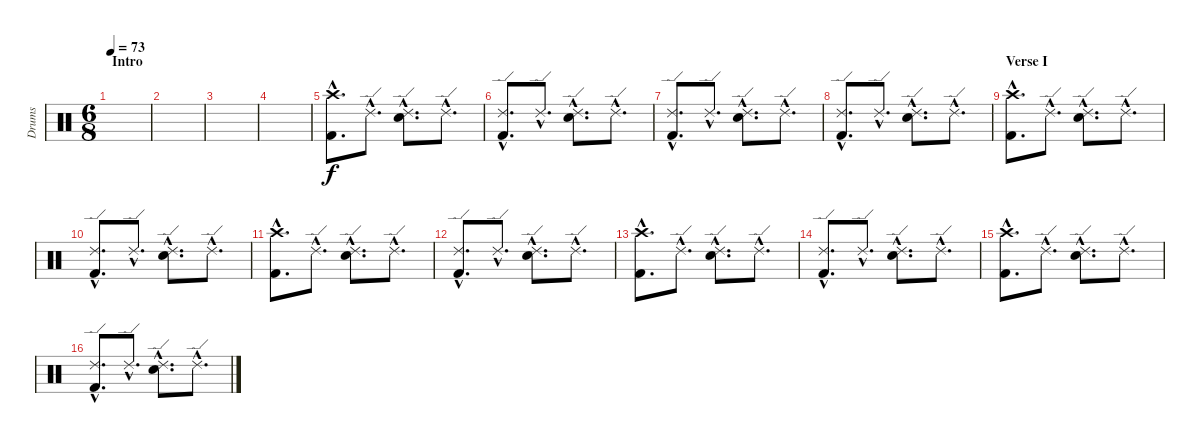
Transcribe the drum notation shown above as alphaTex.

\track ("Drums" "Drums") {instrument percussion}
\staff {score}
\articulation defaults
\ts (6 8)
\section ("" "Intro")
\tempo 73
\clef neutral
\ks c
|
|
|
|
("Crash high (hit)"{hac} "Kick (hit) 2"{hac}).8{d} "Ride (edge) 2"{hac}.8{d} ("Ride (edge) 2"{hac} "Electric Snare (hit)"{hac}).8{d} "Ride (edge) 2"{hac}.8{d} |
("Ride (edge) 2"{hac} "Kick (hit) 2"{hac}).8{d} "Ride (edge) 2"{hac}.8{d} ("Ride (edge) 2"{hac} "Electric Snare (hit)"{hac}).8{d} "Ride (edge) 2"{hac}.8{d} |
("Ride (edge) 2"{hac} "Kick (hit) 2"{hac}).8{d} "Ride (edge) 2"{hac}.8{d} ("Ride (edge) 2"{hac} "Electric Snare (hit)"{hac}).8{d} "Ride (edge) 2"{hac}.8{d} |
("Ride (edge) 2"{hac} "Kick (hit) 2"{hac}).8{d} "Ride (edge) 2"{hac}.8{d} ("Ride (edge) 2"{hac} "Electric Snare (hit)"{hac}).8{d} "Ride (edge) 2"{hac}.8{d} |
\section ("" "Verse I")
("Crash high (hit)"{hac} "Kick (hit) 2"{hac}).8{d} "Ride (edge) 2"{hac}.8{d} ("Ride (edge) 2"{hac} "Electric Snare (hit)"{hac}).8{d} "Ride (edge) 2"{hac}.8{d} |
("Ride (edge) 2"{hac} "Kick (hit) 2"{hac}).8{d} "Ride (edge) 2"{hac}.8{d} ("Ride (edge) 2"{hac} "Electric Snare (hit)"{hac}).8{d} "Ride (edge) 2"{hac}.8{d} |
("Crash high (hit)"{hac} "Kick (hit) 2"{hac}).8{d} "Ride (edge) 2"{hac}.8{d} ("Ride (edge) 2"{hac} "Electric Snare (hit)"{hac}).8{d} "Ride (edge) 2"{hac}.8{d} |
("Ride (edge) 2"{hac} "Kick (hit) 2"{hac}).8{d} "Ride (edge) 2"{hac}.8{d} ("Ride (edge) 2"{hac} "Electric Snare (hit)"{hac}).8{d} "Ride (edge) 2"{hac}.8{d} |
("Crash high (hit)"{hac} "Kick (hit) 2"{hac}).8{d} "Ride (edge) 2"{hac}.8{d} ("Ride (edge) 2"{hac} "Electric Snare (hit)"{hac}).8{d} "Ride (edge) 2"{hac}.8{d} |
("Ride (edge) 2"{hac} "Kick (hit) 2"{hac}).8{d} "Ride (edge) 2"{hac}.8{d} ("Ride (edge) 2"{hac} "Electric Snare (hit)"{hac}).8{d} "Ride (edge) 2"{hac}.8{d} |
("Crash high (hit)"{hac} "Kick (hit) 2"{hac}).8{d} "Ride (edge) 2"{hac}.8{d} ("Ride (edge) 2"{hac} "Electric Snare (hit)"{hac}).8{d} "Ride (edge) 2"{hac}.8{d} |
("Ride (edge) 2"{hac} "Kick (hit) 2"{hac}).8{d} "Ride (edge) 2"{hac}.8{d} ("Ride (edge) 2"{hac} "Electric Snare (hit)"{hac}).8{d} "Ride (edge) 2"{hac}.8{d}
